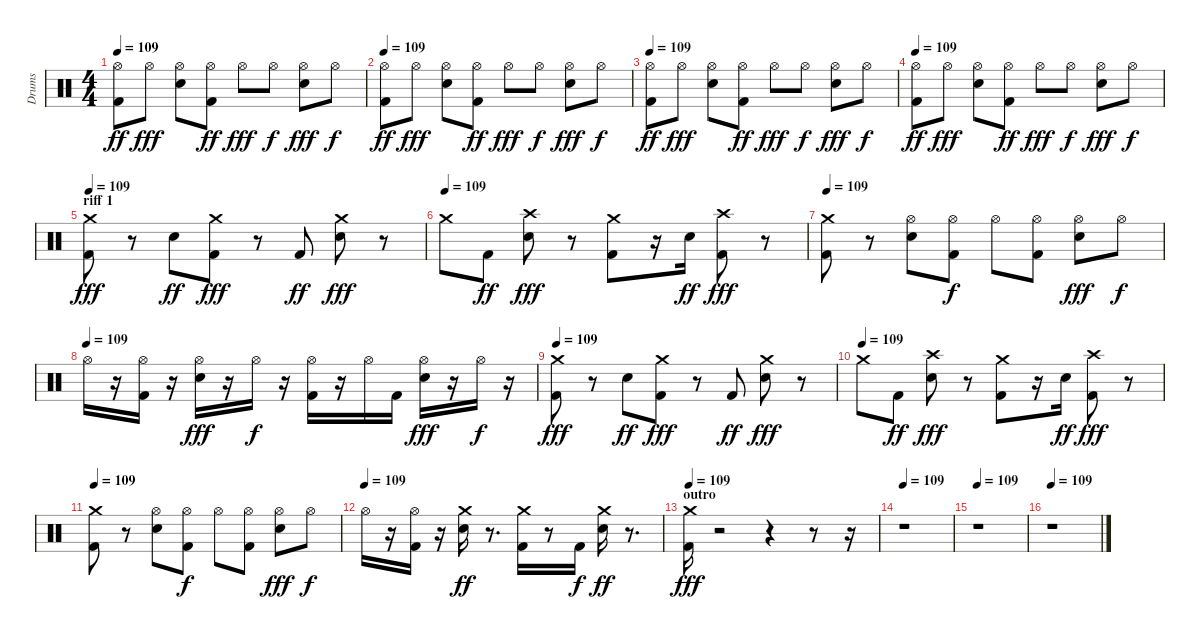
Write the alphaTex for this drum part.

\track ("Drums" "Drums") {instrument percussion}
\staff {score}
\articulation defaults
\ts (4 4)
\tempo 109
\clef neutral
\ks c
("Hi-Hat (open)" "Kick (hit) 2").8{dy ff} "Hi-Hat (open)".8{dy fff} ("Snare (hit) 2" "Hi-Hat (open)").8 ("Hi-Hat (open)" "Kick (hit) 2").8{dy ff} "Hi-Hat (open)".8{dy fff} "Hi-Hat (open)".8{dy f} ("Snare (hit) 2" "Hi-Hat (open)").8{dy fff} "Hi-Hat (open)".8{dy f} |
\tempo 109
("Hi-Hat (open)" "Kick (hit) 2").8{dy ff} "Hi-Hat (open)".8{dy fff} ("Snare (hit) 2" "Hi-Hat (open)").8 ("Hi-Hat (open)" "Kick (hit) 2").8{dy ff} "Hi-Hat (open)".8{dy fff} "Hi-Hat (open)".8{dy f} ("Snare (hit) 2" "Hi-Hat (open)").8{dy fff} "Hi-Hat (open)".8{dy f} |
\tempo 109
("Hi-Hat (open)" "Kick (hit) 2").8{dy ff} "Hi-Hat (open)".8{dy fff} ("Snare (hit) 2" "Hi-Hat (open)").8 ("Hi-Hat (open)" "Kick (hit) 2").8{dy ff} "Hi-Hat (open)".8{dy fff} "Hi-Hat (open)".8{dy f} ("Snare (hit) 2" "Hi-Hat (open)").8{dy fff} "Hi-Hat (open)".8{dy f} |
\tempo 109
("Hi-Hat (open)" "Kick (hit) 2").8{dy ff} "Hi-Hat (open)".8{dy fff} ("Snare (hit) 2" "Hi-Hat (open)").8 ("Hi-Hat (open)" "Kick (hit) 2").8{dy ff} "Hi-Hat (open)".8{dy fff} "Hi-Hat (open)".8{dy f} ("Snare (hit) 2" "Hi-Hat (open)").8{dy fff} "Hi-Hat (open)".8{dy f} |
\section ("" "riff 1")
\tempo 109
("Kick (hit) 2" "Crash medium (hit)").8{dy fff} r.8 "Snare (hit) 2".8{dy ff} ("Kick (hit) 2" "Crash medium (hit)").8{dy fff} r.8 "Kick (hit) 2".8{dy ff} ("Snare (hit) 2" "Crash medium (hit)").8{dy fff} r.8 |
\tempo (109)
"Crash medium (hit)".8 "Kick (hit) 2".8{dy ff} ("Snare (hit) 2" "Crash high (hit)").8{dy fff} r.8 ("Kick (hit) 2" "Crash medium (hit)").8 r.16 "Snare (hit) 2".16{dy ff} ("Kick (hit) 2" "Crash high (hit)").8{dy fff} r.8 |
\tempo 109
("Kick (hit) 2" "Crash medium (hit)").8 r.8 ("Snare (hit) 2" "Hi-Hat (open)").8 ("Kick (hit) 2" "Hi-Hat (open)").8{dy f} "Hi-Hat (open)".8 ("Kick (hit) 2" "Hi-Hat (open)").8 ("Snare (hit) 2" "Hi-Hat (open)").8{dy fff} "Hi-Hat (open)".8{dy f} |
\tempo (109)
"Hi-Hat (open)".16 r.16 ("Kick (hit) 2" "Hi-Hat (open)").16 r.16 ("Snare (hit) 2" "Hi-Hat (open)").16{dy fff} r.16 "Hi-Hat (open)".16{dy f} r.16 ("Kick (hit) 2" "Hi-Hat (open)").16 r.16 "Hi-Hat (open)".16 "Kick (hit) 2".16 ("Snare (hit) 2" "Hi-Hat (open)").16{dy fff} r.16 "Hi-Hat (open)".16{dy f} r.16 |
\tempo 109
("Kick (hit) 2" "Crash medium (hit)").8{dy fff} r.8 "Snare (hit) 2".8{dy ff} ("Kick (hit) 2" "Crash medium (hit)").8{dy fff} r.8 "Kick (hit) 2".8{dy ff} ("Snare (hit) 2" "Crash medium (hit)").8{dy fff} r.8 |
\tempo (109)
"Crash medium (hit)".8 "Kick (hit) 2".8{dy ff} ("Snare (hit) 2" "Crash high (hit)").8{dy fff} r.8 ("Kick (hit) 2" "Crash medium (hit)").8 r.16 "Snare (hit) 2".16{dy ff} ("Kick (hit) 2" "Crash high (hit)").8{dy fff} r.8 |
\tempo 109
("Kick (hit) 2" "Crash medium (hit)").8 r.8 ("Snare (hit) 2" "Hi-Hat (open)").8 ("Kick (hit) 2" "Hi-Hat (open)").8{dy f} "Hi-Hat (open)".8 ("Kick (hit) 2" "Hi-Hat (open)").8 ("Snare (hit) 2" "Hi-Hat (open)").8{dy fff} "Hi-Hat (open)".8{dy f} |
\tempo (109)
"Hi-Hat (open)".16 r.16 ("Kick (hit) 2" "Hi-Hat (open)").16 r.16 ("Crash medium (hit)" "Snare (hit) 2").16{dy ff} r.8{d} ("Crash medium (hit)" "Kick (hit) 2").16 r.8 "Kick (hit) 2".16{dy f} ("Crash medium (hit)" "Snare (hit) 2").16{dy ff} r.8{d} |
\section ("" "outro")
\tempo 109
("Kick (hit) 2" "Crash medium (hit)").16{dy fff} r.2 r.4 r.8 r.16 |
\tempo 109
r.1 |
\tempo 109
r.1 |
\tempo 109
r.1
